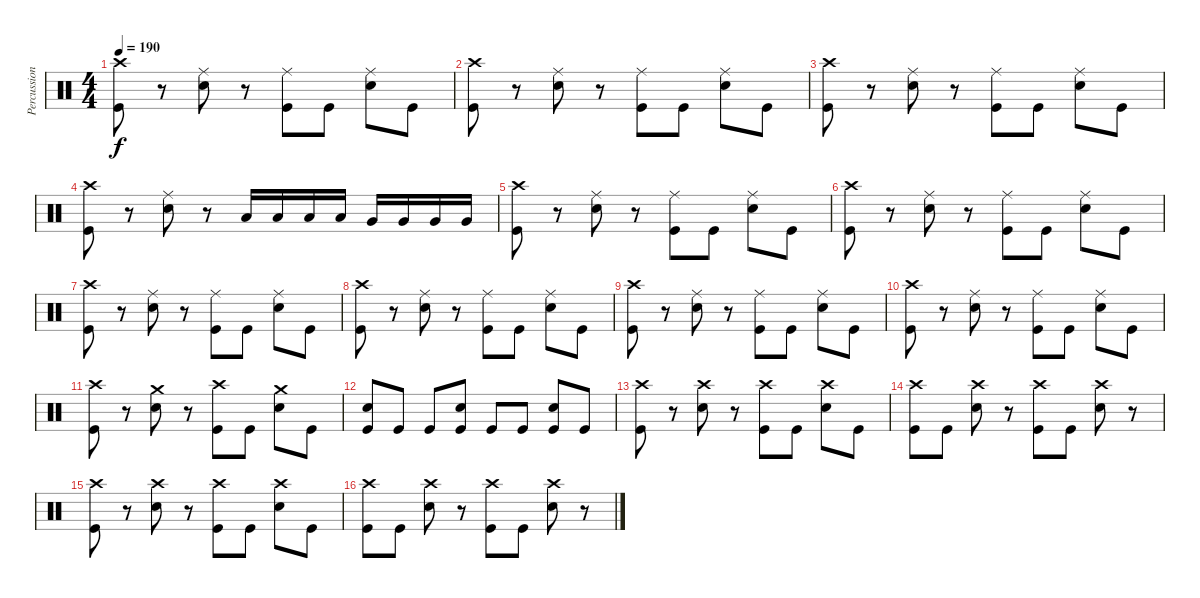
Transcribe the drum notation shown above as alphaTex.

\track ("Percussion" "Percussion") {instrument percussion}
\staff {score}
\articulation defaults
\ts (4 4)
\tempo 190
\clef neutral
\ks c
("Crash high (hit)" "Kick (hit)").8{dy f} r.8 ("Ride (middle)" "Electric Snare (hit)").8 r.8 ("Ride (middle)" "Kick (hit)").8 "Kick (hit)".8 ("Ride (middle)" "Electric Snare (hit)").8 "Kick (hit)".8 |
("Crash high (hit)" "Kick (hit)").8 r.8 ("Ride (middle)" "Electric Snare (hit)").8 r.8 ("Ride (middle)" "Kick (hit)").8 "Kick (hit)".8 ("Ride (middle)" "Electric Snare (hit)").8 "Kick (hit)".8 |
("Crash high (hit)" "Kick (hit)").8 r.8 ("Ride (middle)" "Electric Snare (hit)").8 r.8 ("Ride (middle)" "Kick (hit)").8 "Kick (hit)".8 ("Ride (middle)" "Electric Snare (hit)").8 "Kick (hit)".8 |
("Crash high (hit)" "Kick (hit)").8 r.8 ("Ride (middle)" "Electric Snare (hit)").8 r.8 "Low Tom (hit)".16 "Low Tom (hit)".16 "Low Tom (hit)".16 "Low Tom (hit)".16 "Very Low Tom (hit)".16 "Very Low Tom (hit)".16 "Very Low Tom (hit)".16 "Very Low Tom (hit)".16 |
("Crash high (hit)" "Kick (hit)").8 r.8 ("Ride (middle)" "Electric Snare (hit)").8 r.8 ("Ride (middle)" "Kick (hit)").8 "Kick (hit)".8 ("Ride (middle)" "Electric Snare (hit)").8 "Kick (hit)".8 |
("Crash high (hit)" "Kick (hit)").8 r.8 ("Ride (middle)" "Electric Snare (hit)").8 r.8 ("Ride (middle)" "Kick (hit)").8 "Kick (hit)".8 ("Ride (middle)" "Electric Snare (hit)").8 "Kick (hit)".8 |
("Crash high (hit)" "Kick (hit)").8 r.8 ("Ride (middle)" "Electric Snare (hit)").8 r.8 ("Ride (middle)" "Kick (hit)").8 "Kick (hit)".8 ("Ride (middle)" "Electric Snare (hit)").8 "Kick (hit)".8 |
("Crash high (hit)" "Kick (hit)").8 r.8 ("Ride (middle)" "Electric Snare (hit)").8 r.8 ("Ride (middle)" "Kick (hit)").8 "Kick (hit)".8 ("Ride (middle)" "Electric Snare (hit)").8 "Kick (hit)".8 |
("Crash high (hit)" "Kick (hit)").8 r.8 ("Ride (middle)" "Electric Snare (hit)").8 r.8 ("Ride (middle)" "Kick (hit)").8 "Kick (hit)".8 ("Ride (middle)" "Electric Snare (hit)").8 "Kick (hit)".8 |
("Crash high (hit)" "Kick (hit)").8 r.8 ("Ride (middle)" "Electric Snare (hit)").8 r.8 ("Ride (middle)" "Kick (hit)").8 "Kick (hit)".8 ("Ride (middle)" "Electric Snare (hit)").8 "Kick (hit)".8 |
("Crash high (hit)" "Kick (hit)").8 r.8 ("Crash medium (hit)" "Electric Snare (hit)").8 r.8 ("Crash high (hit)" "Kick (hit)").8 "Kick (hit)".8 ("Crash medium (hit)" "Electric Snare (hit)").8 "Kick (hit)".8 |
("Electric Snare (hit)" "Kick (hit)").8 "Kick (hit)".8 "Kick (hit)".8 ("Electric Snare (hit)" "Kick (hit)").8 "Kick (hit)".8 "Kick (hit)".8 ("Electric Snare (hit)" "Kick (hit)").8 "Kick (hit)".8 |
("Crash high (hit)" "Kick (hit)").8 r.8 ("Crash high (hit)" "Electric Snare (hit)").8 r.8 ("Crash high (hit)" "Kick (hit)").8 "Kick (hit)".8 ("Crash high (hit)" "Electric Snare (hit)").8 "Kick (hit)".8 |
("Crash high (hit)" "Kick (hit)").8 "Kick (hit)".8 ("Crash high (hit)" "Electric Snare (hit)").8 r.8 ("Crash high (hit)" "Kick (hit)").8 "Kick (hit)".8 ("Crash high (hit)" "Electric Snare (hit)").8 r.8 |
("Crash high (hit)" "Kick (hit)").8 r.8 ("Crash high (hit)" "Electric Snare (hit)").8 r.8 ("Crash high (hit)" "Kick (hit)").8 "Kick (hit)".8 ("Crash high (hit)" "Electric Snare (hit)").8 "Kick (hit)".8 |
("Crash high (hit)" "Kick (hit)").8 "Kick (hit)".8 ("Crash high (hit)" "Electric Snare (hit)").8 r.8 ("Crash high (hit)" "Kick (hit)").8 "Kick (hit)".8 ("Crash high (hit)" "Electric Snare (hit)").8 r.8
